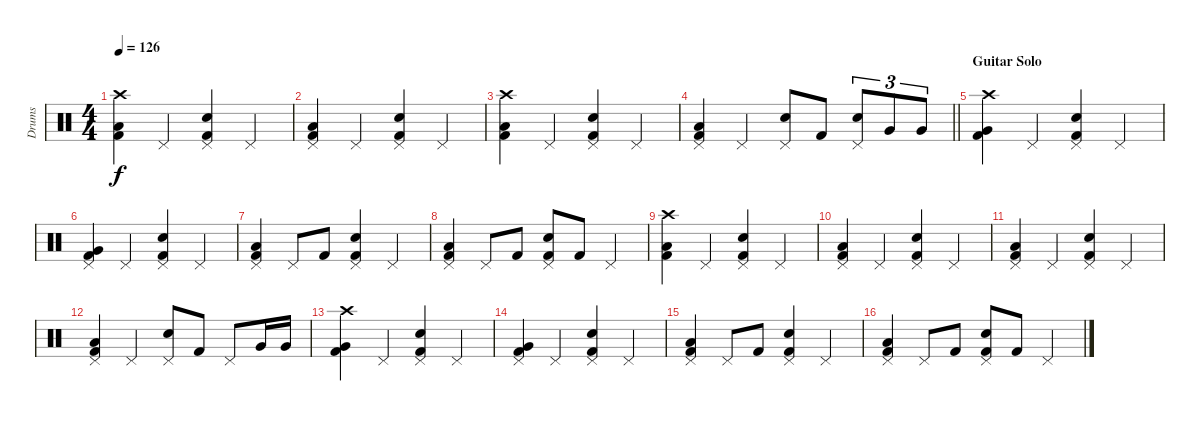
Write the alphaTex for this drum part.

\track ("Drums" "Drums") {instrument percussion}
\staff {score}
\articulation defaults
\ts (4 4)
\tempo 126
\clef neutral
\ks c
("Crash high (hit)" "Kick (hit) 2" "Low Floor Tom (hit)").4{dy f} "Pedal Hi-Hat (hit)".4 ("Pedal Hi-Hat (hit)" "Kick (hit) 2" "Electric Snare (hit)").4 "Pedal Hi-Hat (hit)".4 |
("Pedal Hi-Hat (hit)" "Kick (hit) 2" "Low Floor Tom (hit)").4 "Pedal Hi-Hat (hit)".4 ("Pedal Hi-Hat (hit)" "Kick (hit) 2" "Electric Snare (hit)").4 "Pedal Hi-Hat (hit)".4 |
("Crash high (hit)" "Kick (hit) 2" "Low Floor Tom (hit)").4 "Pedal Hi-Hat (hit)".4 ("Pedal Hi-Hat (hit)" "Kick (hit) 2" "Electric Snare (hit)").4 "Pedal Hi-Hat (hit)".4 |
\barLineRight lightlight
("Pedal Hi-Hat (hit)" "Kick (hit) 2" "Low Floor Tom (hit)").4 "Pedal Hi-Hat (hit)".4 ("Pedal Hi-Hat (hit)" "Electric Snare (hit)").8 "Kick (hit) 2".8 ("Pedal Hi-Hat (hit)" "Electric Snare (hit)").8{tu (3 2)} "Very Low Tom (hit)".8{tu (3 2)} "Very Low Tom (hit)".8{tu (3 2)} |
\section ("" "Guitar Solo")
("Crash high (hit)" "Kick (hit) 2" "Very Low Tom (hit)").4 "Pedal Hi-Hat (hit)".4 ("Pedal Hi-Hat (hit)" "Kick (hit) 2" "Electric Snare (hit)").4 "Pedal Hi-Hat (hit)".4 |
("Pedal Hi-Hat (hit)" "Kick (hit) 2" "Very Low Tom (hit)").4 "Pedal Hi-Hat (hit)".4 ("Pedal Hi-Hat (hit)" "Kick (hit) 2" "Electric Snare (hit)").4 "Pedal Hi-Hat (hit)".4 |
("Pedal Hi-Hat (hit)" "Kick (hit) 2" "Low Floor Tom (hit)").4 "Pedal Hi-Hat (hit)".8 "Kick (hit) 2".8 ("Pedal Hi-Hat (hit)" "Kick (hit) 2" "Electric Snare (hit)").4 "Pedal Hi-Hat (hit)".4 |
("Pedal Hi-Hat (hit)" "Kick (hit) 2" "Low Floor Tom (hit)").4 "Pedal Hi-Hat (hit)".8 "Kick (hit) 2".8 ("Pedal Hi-Hat (hit)" "Kick (hit) 2" "Electric Snare (hit)").8 "Kick (hit) 2".8 "Pedal Hi-Hat (hit)".4 |
("Crash high (hit)" "Kick (hit) 2" "Low Floor Tom (hit)").4 "Pedal Hi-Hat (hit)".4 ("Pedal Hi-Hat (hit)" "Kick (hit) 2" "Electric Snare (hit)").4 "Pedal Hi-Hat (hit)".4 |
("Pedal Hi-Hat (hit)" "Kick (hit) 2" "Low Floor Tom (hit)").4 "Pedal Hi-Hat (hit)".4 ("Pedal Hi-Hat (hit)" "Kick (hit) 2" "Electric Snare (hit)").4 "Pedal Hi-Hat (hit)".4 |
("Pedal Hi-Hat (hit)" "Kick (hit) 2" "Low Floor Tom (hit)").4 "Pedal Hi-Hat (hit)".4 ("Pedal Hi-Hat (hit)" "Kick (hit) 2" "Electric Snare (hit)").4 "Pedal Hi-Hat (hit)".4 |
("Pedal Hi-Hat (hit)" "Kick (hit) 2" "Low Floor Tom (hit)").4 "Pedal Hi-Hat (hit)".4 ("Pedal Hi-Hat (hit)" "Electric Snare (hit)").8 "Kick (hit) 2".8 "Pedal Hi-Hat (hit)".8 "Very Low Tom (hit)".16 "Very Low Tom (hit)".16 |
("Crash high (hit)" "Kick (hit) 2" "Very Low Tom (hit)").4 "Pedal Hi-Hat (hit)".4 ("Pedal Hi-Hat (hit)" "Kick (hit) 2" "Electric Snare (hit)").4 "Pedal Hi-Hat (hit)".4 |
("Pedal Hi-Hat (hit)" "Kick (hit) 2" "Very Low Tom (hit)").4 "Pedal Hi-Hat (hit)".4 ("Pedal Hi-Hat (hit)" "Kick (hit) 2" "Electric Snare (hit)").4 "Pedal Hi-Hat (hit)".4 |
("Pedal Hi-Hat (hit)" "Kick (hit) 2" "Low Floor Tom (hit)").4 "Pedal Hi-Hat (hit)".8 "Kick (hit) 2".8 ("Pedal Hi-Hat (hit)" "Kick (hit) 2" "Electric Snare (hit)").4 "Pedal Hi-Hat (hit)".4 |
("Pedal Hi-Hat (hit)" "Kick (hit) 2" "Low Floor Tom (hit)").4 "Pedal Hi-Hat (hit)".8 "Kick (hit) 2".8 ("Pedal Hi-Hat (hit)" "Kick (hit) 2" "Electric Snare (hit)").8 "Kick (hit) 2".8 "Pedal Hi-Hat (hit)".4
